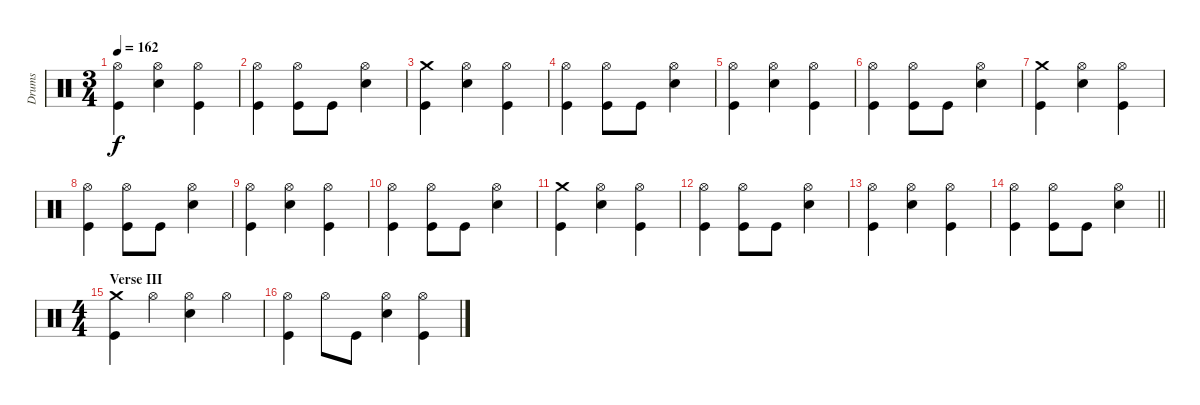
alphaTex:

\track ("Drums" "Drums") {instrument percussion}
\staff {score}
\articulation defaults
\ts (3 4)
\tempo 162
\clef neutral
\ks c
("Hi-Hat (open)" "Kick (hit)").4{dy f} ("Hi-Hat (open)" "Snare (hit) 2").4 ("Hi-Hat (open)" "Kick (hit)").4 |
("Hi-Hat (open)" "Kick (hit)").4 ("Hi-Hat (open)" "Kick (hit)").8 "Kick (hit)".8 ("Hi-Hat (open)" "Snare (hit) 2").4 |
("Crash medium (hit)" "Kick (hit)").4 ("Hi-Hat (open)" "Snare (hit) 2").4 ("Hi-Hat (open)" "Kick (hit)").4 |
("Hi-Hat (open)" "Kick (hit)").4 ("Hi-Hat (open)" "Kick (hit)").8 "Kick (hit)".8 ("Hi-Hat (open)" "Snare (hit) 2").4 |
("Hi-Hat (open)" "Kick (hit)").4 ("Hi-Hat (open)" "Snare (hit) 2").4 ("Hi-Hat (open)" "Kick (hit)").4 |
("Hi-Hat (open)" "Kick (hit)").4 ("Hi-Hat (open)" "Kick (hit)").8 "Kick (hit)".8 ("Hi-Hat (open)" "Snare (hit) 2").4 |
("Crash medium (hit)" "Kick (hit)").4 ("Hi-Hat (open)" "Snare (hit) 2").4 ("Hi-Hat (open)" "Kick (hit)").4 |
("Hi-Hat (open)" "Kick (hit)").4 ("Hi-Hat (open)" "Kick (hit)").8 "Kick (hit)".8 ("Hi-Hat (open)" "Snare (hit) 2").4 |
("Hi-Hat (open)" "Kick (hit)").4 ("Hi-Hat (open)" "Snare (hit) 2").4 ("Hi-Hat (open)" "Kick (hit)").4 |
("Hi-Hat (open)" "Kick (hit)").4 ("Hi-Hat (open)" "Kick (hit)").8 "Kick (hit)".8 ("Hi-Hat (open)" "Snare (hit) 2").4 |
("Crash medium (hit)" "Kick (hit)").4 ("Hi-Hat (open)" "Snare (hit) 2").4 ("Hi-Hat (open)" "Kick (hit)").4 |
("Hi-Hat (open)" "Kick (hit)").4 ("Hi-Hat (open)" "Kick (hit)").8 "Kick (hit)".8 ("Hi-Hat (open)" "Snare (hit) 2").4 |
("Hi-Hat (open)" "Kick (hit)").4 ("Hi-Hat (open)" "Snare (hit) 2").4 ("Hi-Hat (open)" "Kick (hit)").4 |
\barLineRight lightlight
("Hi-Hat (open)" "Kick (hit)").4 ("Hi-Hat (open)" "Kick (hit)").8 "Kick (hit)".8 ("Hi-Hat (open)" "Snare (hit) 2").4 |
\ts (4 4)
\section ("" "Verse III")
("Crash medium (hit)" "Kick (hit)").4 "Hi-Hat (open)".4 ("Hi-Hat (open)" "Snare (hit) 2").4 "Hi-Hat (open)".4 |
("Hi-Hat (open)" "Kick (hit)").4 "Hi-Hat (open)".8 "Kick (hit)".8 ("Hi-Hat (open)" "Snare (hit) 2").4 ("Hi-Hat (open)" "Kick (hit)").4
